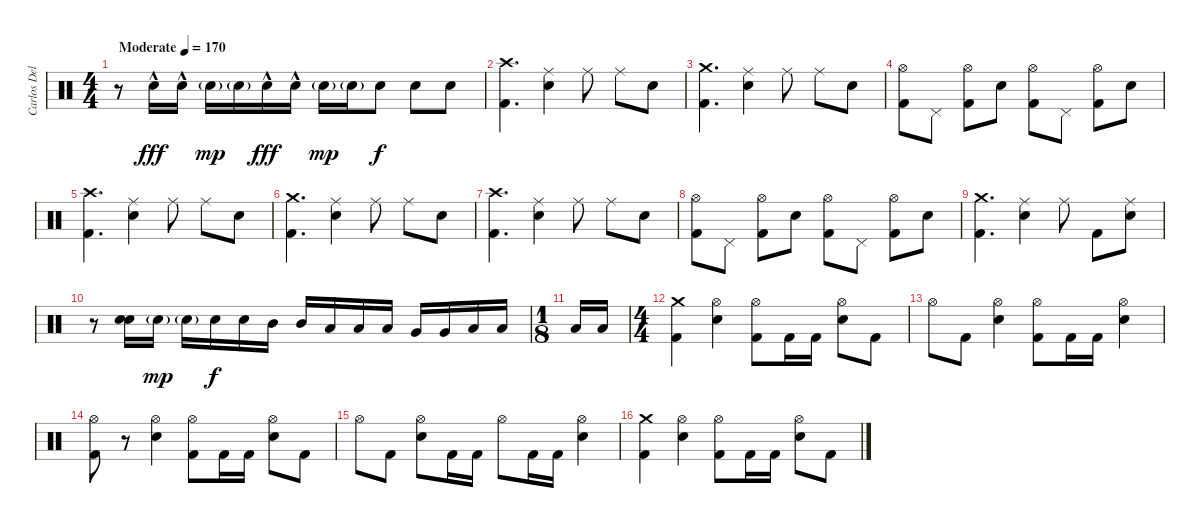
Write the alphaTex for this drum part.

\track ("Carlos Delgado" "Carlos Del") {instrument percussion}
\staff {score}
\articulation defaults
\ts (4 4)
\tempo (170 "Moderate")
\clef neutral
\ks c
r.8{dy fff} "Electric Snare (hit)"{hac}.16 "Electric Snare (hit)"{hac}.16 "Electric Snare (hit)"{g}.16{dy mp} "Electric Snare (hit)"{g}.16 "Electric Snare (hit)"{hac}.16{dy fff} "Electric Snare (hit)"{hac}.16 "Electric Snare (hit)"{g}.16{dy mp} "Electric Snare (hit)"{g}.16 "Electric Snare (hit)".8{dy f} "Electric Snare (hit)".8 "Electric Snare (hit)".8 |
("Crash high (hit)" "Kick (hit) 2").4{d} ("Ride (middle)" "Electric Snare (hit)").4 "Ride (middle)".8 "Ride (middle)".8 "Electric Snare (hit)".8 |
("Crash medium (hit)" "Kick (hit) 2").4{d} ("Ride (middle)" "Electric Snare (hit)").4 "Ride (middle)".8 "Ride (middle)".8 "Electric Snare (hit)".8 |
("Hi-Hat (open)" "Kick (hit) 2").8 "Pedal Hi-Hat (hit)".8 ("Hi-Hat (open)" "Kick (hit) 2").8 "Electric Snare (hit)".8 ("Hi-Hat (open)" "Kick (hit) 2").8 "Pedal Hi-Hat (hit)".8 ("Hi-Hat (open)" "Kick (hit) 2").8 "Electric Snare (hit)".8 |
("Crash high (hit)" "Kick (hit) 2").4{d} ("Ride (middle)" "Electric Snare (hit)").4 "Ride (middle)".8 "Ride (middle)".8 "Electric Snare (hit)".8 |
("Crash medium (hit)" "Kick (hit) 2").4{d} ("Ride (middle)" "Electric Snare (hit)").4 "Ride (middle)".8 "Ride (middle)".8 "Electric Snare (hit)".8 |
("Crash high (hit)" "Kick (hit) 2").4{d} ("Ride (middle)" "Electric Snare (hit)").4 "Ride (middle)".8 "Ride (middle)".8 "Electric Snare (hit)".8 |
("Hi-Hat (open)" "Kick (hit) 2").8 "Pedal Hi-Hat (hit)".8 ("Hi-Hat (open)" "Kick (hit) 2").8 "Electric Snare (hit)".8 ("Hi-Hat (open)" "Kick (hit) 2").8 "Pedal Hi-Hat (hit)".8 ("Hi-Hat (open)" "Kick (hit) 2").8 "Electric Snare (hit)".8 |
("Crash medium (hit)" "Kick (hit) 2").4{d} ("Ride (middle)" "Electric Snare (hit)").4 "Ride (middle)".8 "Kick (hit) 2".8 ("Ride (middle)" "Electric Snare (hit)").8 |
r.8 ("Electric Snare (hit)" "Electric Snare (hit)").16{bd 480} "Electric Snare (hit)"{g}.16{dy mp} "Electric Snare (hit)"{g}.16 "Electric Snare (hit)".16{bd 480 dy f} "Electric Snare (hit)".16 "Mid Tom (hit)".16 "Mid Tom (hit)".16 "Low Tom (hit)".16 "Low Tom (hit)".16 "Low Tom (hit)".16 "Very Low Tom (hit)".16 "Very Low Tom (hit)".16 "Low Floor Tom (hit)".16 "Low Floor Tom (hit)".16 |
\ts (1 8)
"Low Tom (hit)".16 "Low Tom (hit)".16 |
\ts (4 4)
("Crash medium (hit)" "Kick (hit) 2").4 ("Hi-Hat (open)" "Electric Snare (hit)").4 ("Hi-Hat (open)" "Kick (hit) 2").8 "Kick (hit) 2".16 "Kick (hit) 2".16 ("Hi-Hat (open)" "Electric Snare (hit)").8 "Kick (hit) 2".8 |
"Hi-Hat (open)".8 "Kick (hit) 2".8 ("Hi-Hat (open)" "Electric Snare (hit)").4 ("Hi-Hat (open)" "Kick (hit) 2").8 "Kick (hit) 2".16 "Kick (hit) 2".16 ("Hi-Hat (open)" "Electric Snare (hit)").4 |
("Hi-Hat (open)" "Kick (hit) 2").8 r.8 ("Hi-Hat (open)" "Electric Snare (hit)").4 ("Hi-Hat (open)" "Kick (hit) 2").8 "Kick (hit) 2".16 "Kick (hit) 2".16 ("Hi-Hat (open)" "Electric Snare (hit)").8 "Kick (hit) 2".8 |
"Hi-Hat (open)".8 "Kick (hit) 2".8 ("Hi-Hat (open)" "Electric Snare (hit)").8 "Kick (hit) 2".16 "Kick (hit) 2".16 "Hi-Hat (open)".8 "Kick (hit) 2".16 "Kick (hit) 2".16 ("Hi-Hat (open)" "Electric Snare (hit)").4 |
("Crash medium (hit)" "Kick (hit) 2").4 ("Hi-Hat (open)" "Electric Snare (hit)").4 ("Hi-Hat (open)" "Kick (hit) 2").8 "Kick (hit) 2".16 "Kick (hit) 2".16 ("Hi-Hat (open)" "Electric Snare (hit)").8 "Kick (hit) 2".8
